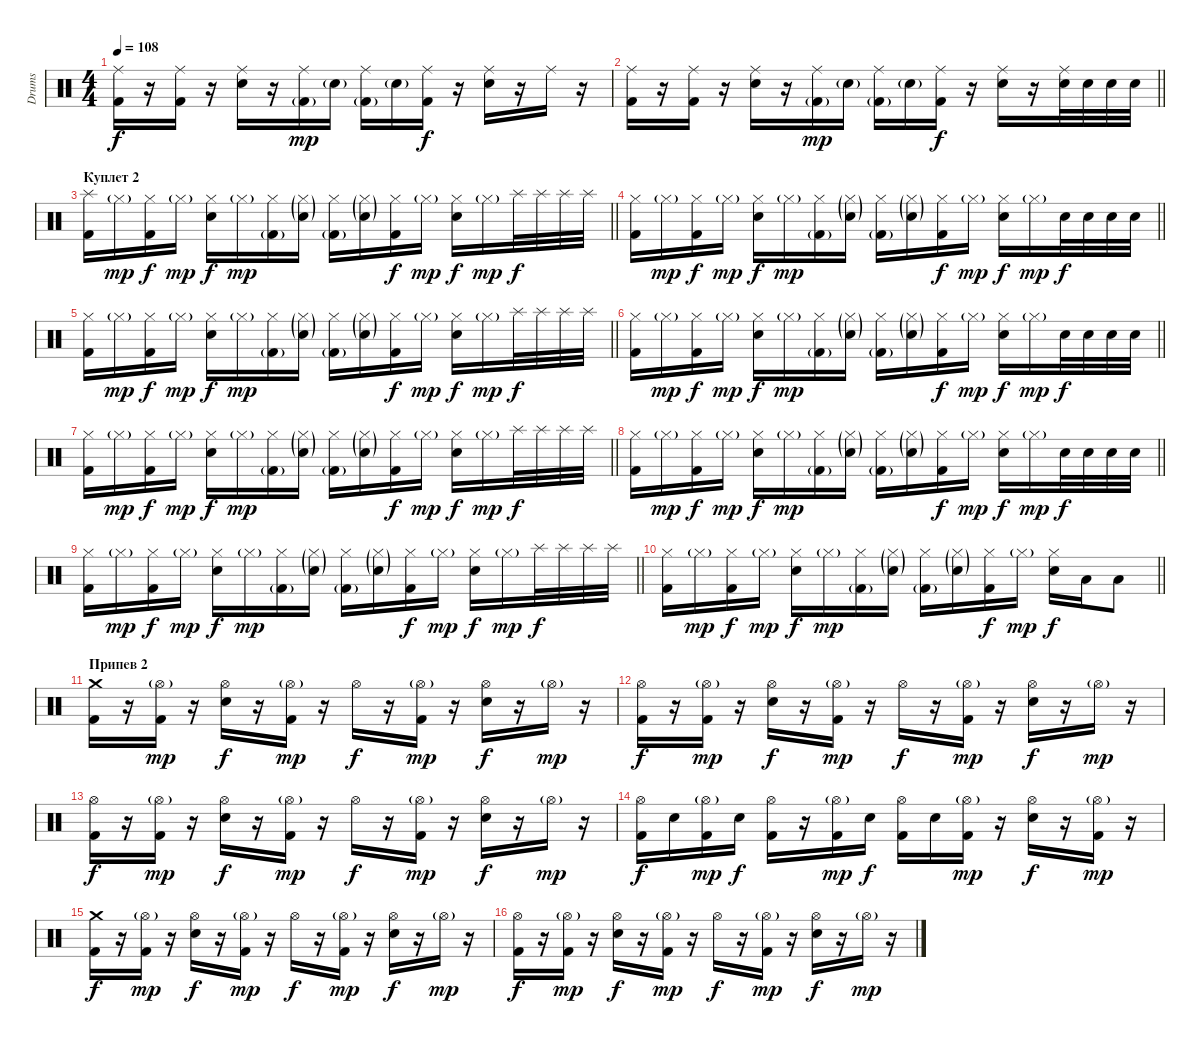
\track ("Drums" "Drums") {instrument percussion}
\staff {score}
\articulation defaults
\ts (4 4)
\tempo 108
\clef neutral
\ks c
("Ride (middle)" "Kick (hit) 2").16{dy f} r.16 ("Ride (middle)" "Kick (hit) 2").16 r.16 ("Ride (middle)" "Electric Snare (hit)").16 r.16 ("Ride (middle)" "Kick (hit) 2"{g}).16{dy mp} "Electric Snare (hit)"{g}.16 ("Ride (middle)" "Kick (hit) 2"{g}).16 "Electric Snare (hit)"{g}.16 ("Ride (middle)" "Kick (hit) 2").16{dy f} r.16 ("Ride (middle)" "Electric Snare (hit)").16 r.16 "Ride (middle)".16 r.16 |
\barLineRight lightlight
("Ride (middle)" "Kick (hit) 2").16 r.16 ("Ride (middle)" "Kick (hit) 2").16 r.16 ("Ride (middle)" "Electric Snare (hit)").16 r.16 ("Ride (middle)" "Kick (hit) 2"{g}).16{dy mp} "Electric Snare (hit)"{g}.16 ("Ride (middle)" "Kick (hit) 2"{g}).16 "Electric Snare (hit)"{g}.16 ("Ride (middle)" "Kick (hit) 2").16{dy f} r.16 ("Ride (middle)" "Electric Snare (hit)").16 r.16 ("Ride (middle)" "Electric Snare (hit)").32 "Electric Snare (hit)".32 "Electric Snare (hit)".32 "Electric Snare (hit)".32 |
\section ("" "Куплет 2")
\barLineRight lightlight
("Splash (hit)" "Kick (hit) 2").16 "Hi-Hat (closed)"{g}.16{dy mp} ("Hi-Hat (closed)" "Kick (hit) 2").16{dy f} "Hi-Hat (closed)"{g}.16{dy mp} ("Hi-Hat (closed)" "Electric Snare (hit)").16{dy f} "Hi-Hat (closed)"{g}.16{dy mp} ("Hi-Hat (closed)" "Kick (hit) 2"{g}).16 ("Hi-Hat (closed)"{g} "Electric Snare (hit)"{g}).16 ("Hi-Hat (closed)" "Kick (hit) 2"{g}).16 ("Hi-Hat (closed)"{g} "Electric Snare (hit)"{g}).16 ("Hi-Hat (closed)" "Kick (hit) 2").16{dy f} "Hi-Hat (closed)"{g}.16{dy mp} ("Hi-Hat (closed)" "Electric Snare (hit)").16{dy f} "Hi-Hat (closed)"{g}.16{dy mp} "Splash (hit)".32{dy f} "Splash (hit)".32 "Splash (hit)".32 "Splash (hit)".32 |
\barLineRight lightlight
("Hi-Hat (closed)" "Kick (hit) 2").16 "Hi-Hat (closed)"{g}.16{dy mp} ("Hi-Hat (closed)" "Kick (hit) 2").16{dy f} "Hi-Hat (closed)"{g}.16{dy mp} ("Hi-Hat (closed)" "Electric Snare (hit)").16{dy f} "Hi-Hat (closed)"{g}.16{dy mp} ("Hi-Hat (closed)" "Kick (hit) 2"{g}).16 ("Hi-Hat (closed)"{g} "Electric Snare (hit)"{g}).16 ("Hi-Hat (closed)" "Kick (hit) 2"{g}).16 ("Hi-Hat (closed)"{g} "Electric Snare (hit)"{g}).16 ("Hi-Hat (closed)" "Kick (hit) 2").16{dy f} "Hi-Hat (closed)"{g}.16{dy mp} ("Hi-Hat (closed)" "Electric Snare (hit)").16{dy f} "Hi-Hat (closed)"{g}.16{dy mp} "Electric Snare (hit)".32{dy f} "Electric Snare (hit)".32 "Electric Snare (hit)".32 "Electric Snare (hit)".32 |
\barLineRight lightlight
("Hi-Hat (closed)" "Kick (hit) 2").16 "Hi-Hat (closed)"{g}.16{dy mp} ("Hi-Hat (closed)" "Kick (hit) 2").16{dy f} "Hi-Hat (closed)"{g}.16{dy mp} ("Hi-Hat (closed)" "Electric Snare (hit)").16{dy f} "Hi-Hat (closed)"{g}.16{dy mp} ("Hi-Hat (closed)" "Kick (hit) 2"{g}).16 ("Hi-Hat (closed)"{g} "Electric Snare (hit)"{g}).16 ("Hi-Hat (closed)" "Kick (hit) 2"{g}).16 ("Hi-Hat (closed)"{g} "Electric Snare (hit)"{g}).16 ("Hi-Hat (closed)" "Kick (hit) 2").16{dy f} "Hi-Hat (closed)"{g}.16{dy mp} ("Hi-Hat (closed)" "Electric Snare (hit)").16{dy f} "Hi-Hat (closed)"{g}.16{dy mp} "Splash (hit)".32{dy f} "Splash (hit)".32 "Splash (hit)".32 "Splash (hit)".32 |
\barLineRight lightlight
("Hi-Hat (closed)" "Kick (hit) 2").16 "Hi-Hat (closed)"{g}.16{dy mp} ("Hi-Hat (closed)" "Kick (hit) 2").16{dy f} "Hi-Hat (closed)"{g}.16{dy mp} ("Hi-Hat (closed)" "Electric Snare (hit)").16{dy f} "Hi-Hat (closed)"{g}.16{dy mp} ("Hi-Hat (closed)" "Kick (hit) 2"{g}).16 ("Hi-Hat (closed)"{g} "Electric Snare (hit)"{g}).16 ("Hi-Hat (closed)" "Kick (hit) 2"{g}).16 ("Hi-Hat (closed)"{g} "Electric Snare (hit)"{g}).16 ("Hi-Hat (closed)" "Kick (hit) 2").16{dy f} "Hi-Hat (closed)"{g}.16{dy mp} ("Hi-Hat (closed)" "Electric Snare (hit)").16{dy f} "Hi-Hat (closed)"{g}.16{dy mp} "Electric Snare (hit)".32{dy f} "Electric Snare (hit)".32 "Electric Snare (hit)".32 "Electric Snare (hit)".32 |
\barLineRight lightlight
("Hi-Hat (closed)" "Kick (hit) 2").16 "Hi-Hat (closed)"{g}.16{dy mp} ("Hi-Hat (closed)" "Kick (hit) 2").16{dy f} "Hi-Hat (closed)"{g}.16{dy mp} ("Hi-Hat (closed)" "Electric Snare (hit)").16{dy f} "Hi-Hat (closed)"{g}.16{dy mp} ("Hi-Hat (closed)" "Kick (hit) 2"{g}).16 ("Hi-Hat (closed)"{g} "Electric Snare (hit)"{g}).16 ("Hi-Hat (closed)" "Kick (hit) 2"{g}).16 ("Hi-Hat (closed)"{g} "Electric Snare (hit)"{g}).16 ("Hi-Hat (closed)" "Kick (hit) 2").16{dy f} "Hi-Hat (closed)"{g}.16{dy mp} ("Hi-Hat (closed)" "Electric Snare (hit)").16{dy f} "Hi-Hat (closed)"{g}.16{dy mp} "Splash (hit)".32{dy f} "Splash (hit)".32 "Splash (hit)".32 "Splash (hit)".32 |
\barLineRight lightlight
("Hi-Hat (closed)" "Kick (hit) 2").16 "Hi-Hat (closed)"{g}.16{dy mp} ("Hi-Hat (closed)" "Kick (hit) 2").16{dy f} "Hi-Hat (closed)"{g}.16{dy mp} ("Hi-Hat (closed)" "Electric Snare (hit)").16{dy f} "Hi-Hat (closed)"{g}.16{dy mp} ("Hi-Hat (closed)" "Kick (hit) 2"{g}).16 ("Hi-Hat (closed)"{g} "Electric Snare (hit)"{g}).16 ("Hi-Hat (closed)" "Kick (hit) 2"{g}).16 ("Hi-Hat (closed)"{g} "Electric Snare (hit)"{g}).16 ("Hi-Hat (closed)" "Kick (hit) 2").16{dy f} "Hi-Hat (closed)"{g}.16{dy mp} ("Hi-Hat (closed)" "Electric Snare (hit)").16{dy f} "Hi-Hat (closed)"{g}.16{dy mp} "Electric Snare (hit)".32{dy f} "Electric Snare (hit)".32 "Electric Snare (hit)".32 "Electric Snare (hit)".32 |
\barLineRight lightlight
("Hi-Hat (closed)" "Kick (hit) 2").16 "Hi-Hat (closed)"{g}.16{dy mp} ("Hi-Hat (closed)" "Kick (hit) 2").16{dy f} "Hi-Hat (closed)"{g}.16{dy mp} ("Hi-Hat (closed)" "Electric Snare (hit)").16{dy f} "Hi-Hat (closed)"{g}.16{dy mp} ("Hi-Hat (closed)" "Kick (hit) 2"{g}).16 ("Hi-Hat (closed)"{g} "Electric Snare (hit)"{g}).16 ("Hi-Hat (closed)" "Kick (hit) 2"{g}).16 ("Hi-Hat (closed)"{g} "Electric Snare (hit)"{g}).16 ("Hi-Hat (closed)" "Kick (hit) 2").16{dy f} "Hi-Hat (closed)"{g}.16{dy mp} ("Hi-Hat (closed)" "Electric Snare (hit)").16{dy f} "Hi-Hat (closed)"{g}.16{dy mp} "Splash (hit)".32{dy f} "Splash (hit)".32 "Splash (hit)".32 "Splash (hit)".32 |
\barLineRight lightlight
("Hi-Hat (closed)" "Kick (hit) 2").16 "Hi-Hat (closed)"{g}.16{dy mp} ("Hi-Hat (closed)" "Kick (hit) 2").16{dy f} "Hi-Hat (closed)"{g}.16{dy mp} ("Hi-Hat (closed)" "Electric Snare (hit)").16{dy f} "Hi-Hat (closed)"{g}.16{dy mp} ("Hi-Hat (closed)" "Kick (hit) 2"{g}).16 ("Hi-Hat (closed)"{g} "Electric Snare (hit)"{g}).16 ("Hi-Hat (closed)" "Kick (hit) 2"{g}).16 ("Hi-Hat (closed)"{g} "Electric Snare (hit)"{g}).16 ("Hi-Hat (closed)" "Kick (hit) 2").16{dy f} "Hi-Hat (closed)"{g}.16{dy mp} ("Hi-Hat (closed)" "Electric Snare (hit)").16{dy f} "Low Floor Tom (hit)".16 "Low Tom (hit)".8 |
\section ("" "Припев 2")
("Crash medium (hit)" "Kick (hit) 2").16 r.16 ("Hi-Hat (open)"{g} "Kick (hit) 2").16{dy mp} r.16 ("Hi-Hat (open)" "Electric Snare (hit)").16{dy f} r.16 ("Hi-Hat (open)"{g} "Kick (hit) 2").16{dy mp} r.16 "Hi-Hat (open)".16{dy f} r.16 ("Hi-Hat (open)"{g} "Kick (hit) 2").16{dy mp} r.16 ("Hi-Hat (open)" "Electric Snare (hit)").16{dy f} r.16 "Hi-Hat (open)"{g}.16{dy mp} r.16 |
("Hi-Hat (open)" "Kick (hit) 2").16{dy f} r.16 ("Hi-Hat (open)"{g} "Kick (hit) 2").16{dy mp} r.16 ("Hi-Hat (open)" "Electric Snare (hit)").16{dy f} r.16 ("Hi-Hat (open)"{g} "Kick (hit) 2").16{dy mp} r.16 "Hi-Hat (open)".16{dy f} r.16 ("Hi-Hat (open)"{g} "Kick (hit) 2").16{dy mp} r.16 ("Hi-Hat (open)" "Electric Snare (hit)").16{dy f} r.16 "Hi-Hat (open)"{g}.16{dy mp} r.16 |
("Hi-Hat (open)" "Kick (hit) 2").16{dy f} r.16 ("Hi-Hat (open)"{g} "Kick (hit) 2").16{dy mp} r.16 ("Hi-Hat (open)" "Electric Snare (hit)").16{dy f} r.16 ("Hi-Hat (open)"{g} "Kick (hit) 2").16{dy mp} r.16 "Hi-Hat (open)".16{dy f} r.16 ("Hi-Hat (open)"{g} "Kick (hit) 2").16{dy mp} r.16 ("Hi-Hat (open)" "Electric Snare (hit)").16{dy f} r.16 "Hi-Hat (open)"{g}.16{dy mp} r.16 |
("Hi-Hat (open)" "Kick (hit) 2").16{dy f} "Electric Snare (hit)".16 ("Hi-Hat (open)"{g} "Kick (hit) 2").16{dy mp} "Electric Snare (hit)".16{dy f} ("Hi-Hat (open)" "Kick (hit) 2").16 r.16 ("Hi-Hat (open)"{g} "Kick (hit) 2").16{dy mp} "Electric Snare (hit)".16{dy f} ("Hi-Hat (open)" "Kick (hit) 2").16 "Electric Snare (hit)".16 ("Hi-Hat (open)"{g} "Kick (hit) 2").16{dy mp} r.16 ("Hi-Hat (open)" "Electric Snare (hit)").16{dy f} r.16 ("Hi-Hat (open)"{g} "Kick (hit) 2").16{dy mp} r.16 |
("Crash medium (hit)" "Kick (hit) 2").16{dy f} r.16 ("Hi-Hat (open)"{g} "Kick (hit) 2").16{dy mp} r.16 ("Hi-Hat (open)" "Electric Snare (hit)").16{dy f} r.16 ("Hi-Hat (open)"{g} "Kick (hit) 2").16{dy mp} r.16 "Hi-Hat (open)".16{dy f} r.16 ("Hi-Hat (open)"{g} "Kick (hit) 2").16{dy mp} r.16 ("Hi-Hat (open)" "Electric Snare (hit)").16{dy f} r.16 "Hi-Hat (open)"{g}.16{dy mp} r.16 |
("Hi-Hat (open)" "Kick (hit) 2").16{dy f} r.16 ("Hi-Hat (open)"{g} "Kick (hit) 2").16{dy mp} r.16 ("Hi-Hat (open)" "Electric Snare (hit)").16{dy f} r.16 ("Hi-Hat (open)"{g} "Kick (hit) 2").16{dy mp} r.16 "Hi-Hat (open)".16{dy f} r.16 ("Hi-Hat (open)"{g} "Kick (hit) 2").16{dy mp} r.16 ("Hi-Hat (open)" "Electric Snare (hit)").16{dy f} r.16 "Hi-Hat (open)"{g}.16{dy mp} r.16
